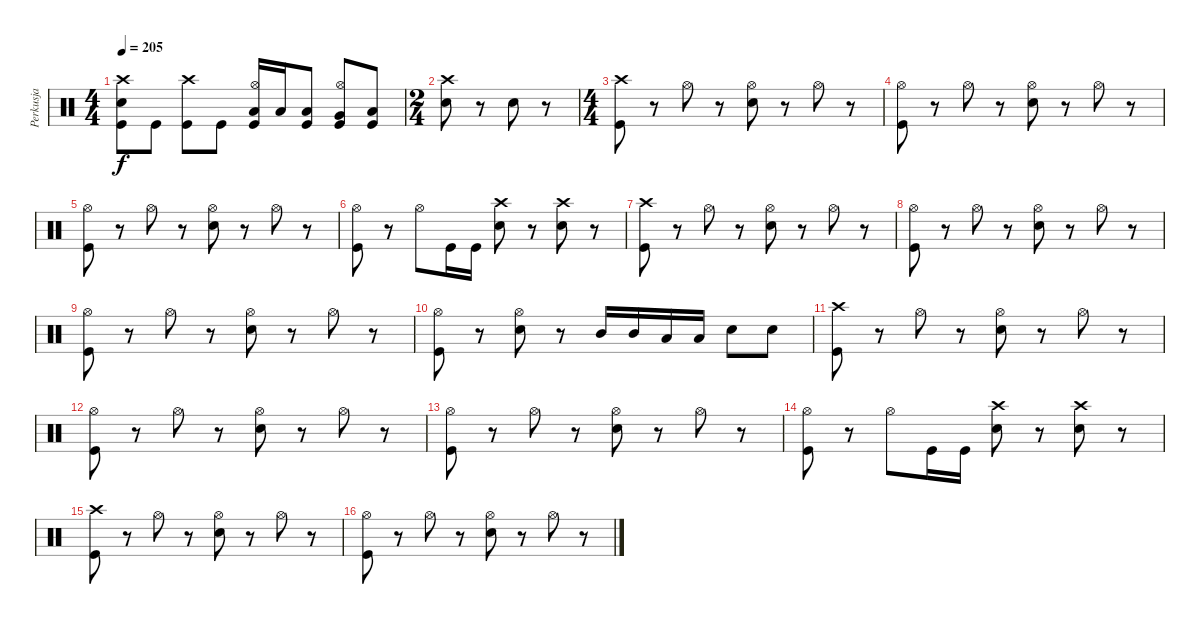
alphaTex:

\track ("Perkusja" "Perkusja") {instrument percussion}
\staff {score}
\articulation defaults
\ts (4 4)
\tempo 205
\clef neutral
\ks c
("Crash high (hit)" "Kick (hit)" "Snare (hit) 2").8{dy f} "Kick (hit)".8 ("Crash high (hit)" "Kick (hit)").8 "Kick (hit)".8 ("Hi-Hat (open)" "Low Tom (hit)" "Kick (hit)").16 "Low Tom (hit)".16 ("Low Tom (hit)" "Kick (hit)").8 ("Hi-Hat (open)" "Very Low Tom (hit)" "Kick (hit)").8 ("Low Floor Tom (hit)" "Kick (hit)").8 |
\ts (2 4)
("Crash high (hit)" "Snare (hit) 2").8 r.8 "Snare (hit) 2".8 r.8 |
\ts (4 4)
("Crash high (hit)" "Kick (hit)").8 r.8 "Hi-Hat (open)".8 r.8 ("Hi-Hat (open)" "Snare (hit) 2").8 r.8 "Hi-Hat (open)".8 r.8 |
("Hi-Hat (open)" "Kick (hit)").8 r.8 "Hi-Hat (open)".8 r.8 ("Hi-Hat (open)" "Snare (hit) 2").8 r.8 "Hi-Hat (open)".8 r.8 |
("Hi-Hat (open)" "Kick (hit)").8 r.8 "Hi-Hat (open)".8 r.8 ("Hi-Hat (open)" "Snare (hit) 2").8 r.8 "Hi-Hat (open)".8 r.8 |
("Hi-Hat (open)" "Kick (hit)").8 r.8 "Hi-Hat (open)".8 "Kick (hit)".16 "Kick (hit)".16 ("Crash high (hit)" "Snare (hit) 2").8 r.8 ("Crash high (hit)" "Snare (hit) 2").8 r.8 |
("Crash high (hit)" "Kick (hit)").8 r.8 "Hi-Hat (open)".8 r.8 ("Hi-Hat (open)" "Snare (hit) 2").8 r.8 "Hi-Hat (open)".8 r.8 |
("Hi-Hat (open)" "Kick (hit)").8 r.8 "Hi-Hat (open)".8 r.8 ("Hi-Hat (open)" "Snare (hit) 2").8 r.8 "Hi-Hat (open)".8 r.8 |
("Hi-Hat (open)" "Kick (hit)").8 r.8 "Hi-Hat (open)".8 r.8 ("Hi-Hat (open)" "Snare (hit) 2").8 r.8 "Hi-Hat (open)".8 r.8 |
("Hi-Hat (open)" "Kick (hit)").8 r.8 ("Hi-Hat (open)" "Snare (hit) 2").8 r.8 "Mid Tom (hit)".16 "Mid Tom (hit)".16 "Low Tom (hit)".16 "Low Tom (hit)".16 "Snare (hit) 2".8 "Snare (hit) 2".8 |
("Crash high (hit)" "Kick (hit)").8 r.8 "Hi-Hat (open)".8 r.8 ("Hi-Hat (open)" "Snare (hit) 2").8 r.8 "Hi-Hat (open)".8 r.8 |
("Hi-Hat (open)" "Kick (hit)").8 r.8 "Hi-Hat (open)".8 r.8 ("Hi-Hat (open)" "Snare (hit) 2").8 r.8 "Hi-Hat (open)".8 r.8 |
("Hi-Hat (open)" "Kick (hit)").8 r.8 "Hi-Hat (open)".8 r.8 ("Hi-Hat (open)" "Snare (hit) 2").8 r.8 "Hi-Hat (open)".8 r.8 |
("Hi-Hat (open)" "Kick (hit)").8 r.8 "Hi-Hat (open)".8 "Kick (hit)".16 "Kick (hit)".16 ("Crash high (hit)" "Snare (hit) 2").8 r.8 ("Crash high (hit)" "Snare (hit) 2").8 r.8 |
("Crash high (hit)" "Kick (hit)").8 r.8 "Hi-Hat (open)".8 r.8 ("Hi-Hat (open)" "Snare (hit) 2").8 r.8 "Hi-Hat (open)".8 r.8 |
("Hi-Hat (open)" "Kick (hit)").8 r.8 "Hi-Hat (open)".8 r.8 ("Hi-Hat (open)" "Snare (hit) 2").8 r.8 "Hi-Hat (open)".8 r.8
